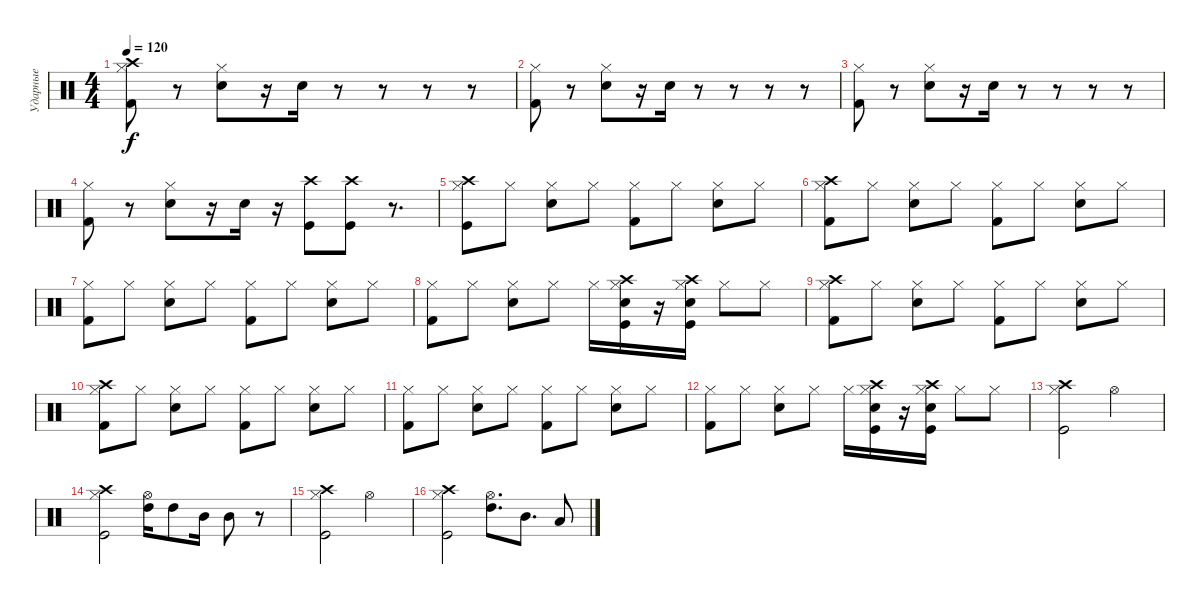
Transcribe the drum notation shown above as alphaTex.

\track ("Ударные" "Ударные") {instrument percussion}
\staff {score}
\articulation defaults
\ts (4 4)
\tempo 120
\clef neutral
\ks c
("Hi-Hat (closed)" "Crash high (hit)" "Kick (hit) 2").8{dy f} r.8 ("Hi-Hat (closed)" "Electric Snare (hit)").8 r.16 "Electric Snare (hit)".16 r.8 r.8 r.8 r.8 |
("Hi-Hat (closed)" "Kick (hit) 2").8 r.8 ("Hi-Hat (closed)" "Electric Snare (hit)").8 r.16 "Electric Snare (hit)".16 r.8 r.8 r.8 r.8 |
("Hi-Hat (closed)" "Kick (hit) 2").8 r.8 ("Hi-Hat (closed)" "Electric Snare (hit)").8 r.16 "Electric Snare (hit)".16 r.8 r.8 r.8 r.8 |
("Hi-Hat (closed)" "Kick (hit) 2").8 r.8 ("Hi-Hat (closed)" "Electric Snare (hit)").8 r.16 "Electric Snare (hit)".16 r.16 ("Crash high (hit)" "Kick (hit)").8 ("Crash high (hit)" "Kick (hit)").8 r.8{d} |
("Hi-Hat (closed)" "Crash high (hit)" "Kick (hit)").8 "Hi-Hat (closed)".8 ("Hi-Hat (closed)" "Electric Snare (hit)").8 "Hi-Hat (closed)".8 ("Hi-Hat (closed)" "Kick (hit) 2").8 "Hi-Hat (closed)".8 ("Hi-Hat (closed)" "Electric Snare (hit)").8 "Hi-Hat (closed)".8 |
("Hi-Hat (closed)" "Crash high (hit)" "Kick (hit) 2").8 "Hi-Hat (closed)".8 ("Hi-Hat (closed)" "Electric Snare (hit)").8 "Hi-Hat (closed)".8 ("Hi-Hat (closed)" "Kick (hit) 2").8 "Hi-Hat (closed)".8 ("Hi-Hat (closed)" "Electric Snare (hit)").8 "Hi-Hat (closed)".8 |
("Hi-Hat (closed)" "Kick (hit) 2").8 "Hi-Hat (closed)".8 ("Hi-Hat (closed)" "Electric Snare (hit)").8 "Hi-Hat (closed)".8 ("Hi-Hat (closed)" "Kick (hit) 2").8 "Hi-Hat (closed)".8 ("Hi-Hat (closed)" "Electric Snare (hit)").8 "Hi-Hat (closed)".8 |
("Hi-Hat (closed)" "Kick (hit) 2").8 "Hi-Hat (closed)".8 ("Hi-Hat (closed)" "Electric Snare (hit)").8 "Hi-Hat (closed)".8 "Hi-Hat (closed)".16 ("Hi-Hat (closed)" "Electric Snare (hit)" "Crash high (hit)" "Kick (hit)").16 r.16 ("Hi-Hat (closed)" "Electric Snare (hit)" "Crash high (hit)" "Kick (hit)").16 "Hi-Hat (closed)".8 "Hi-Hat (closed)".8 |
("Hi-Hat (closed)" "Crash high (hit)" "Kick (hit) 2").8 "Hi-Hat (closed)".8 ("Hi-Hat (closed)" "Electric Snare (hit)").8 "Hi-Hat (closed)".8 ("Hi-Hat (closed)" "Kick (hit) 2").8 "Hi-Hat (closed)".8 ("Hi-Hat (closed)" "Electric Snare (hit)").8 "Hi-Hat (closed)".8 |
("Hi-Hat (closed)" "Crash high (hit)" "Kick (hit) 2").8 "Hi-Hat (closed)".8 ("Hi-Hat (closed)" "Electric Snare (hit)").8 "Hi-Hat (closed)".8 ("Hi-Hat (closed)" "Kick (hit) 2").8 "Hi-Hat (closed)".8 ("Hi-Hat (closed)" "Electric Snare (hit)").8 "Hi-Hat (closed)".8 |
("Hi-Hat (closed)" "Kick (hit) 2").8 "Hi-Hat (closed)".8 ("Hi-Hat (closed)" "Electric Snare (hit)").8 "Hi-Hat (closed)".8 ("Hi-Hat (closed)" "Kick (hit) 2").8 "Hi-Hat (closed)".8 ("Hi-Hat (closed)" "Electric Snare (hit)").8 "Hi-Hat (closed)".8 |
("Hi-Hat (closed)" "Kick (hit) 2").8 "Hi-Hat (closed)".8 ("Hi-Hat (closed)" "Electric Snare (hit)").8 "Hi-Hat (closed)".8 "Hi-Hat (closed)".16 ("Hi-Hat (closed)" "Electric Snare (hit)" "Crash high (hit)" "Kick (hit)").16 r.16 ("Hi-Hat (closed)" "Electric Snare (hit)" "Crash high (hit)" "Kick (hit)").16 "Hi-Hat (closed)".8 "Hi-Hat (closed)".8 |
("Crash high (hit)" "Hi-Hat (closed)" "Kick (hit)").2 "Hi-Hat (open)".2 |
("Hi-Hat (closed)" "Crash high (hit)" "Kick (hit)").2 ("Hi-Hat (open)" "High Tom (hit)").16 "High Tom (hit)".8 "Mid Tom (hit)".16 "Mid Tom (hit)".8 r.8 |
("Crash high (hit)" "Hi-Hat (closed)" "Kick (hit)").2 "Hi-Hat (open)".2 |
("Hi-Hat (closed)" "Crash high (hit)" "Kick (hit)").2 ("Hi-Hat (open)" "High Tom (hit)").8{d} "Mid Tom (hit)".8{d} "Low Tom (hit)".8
